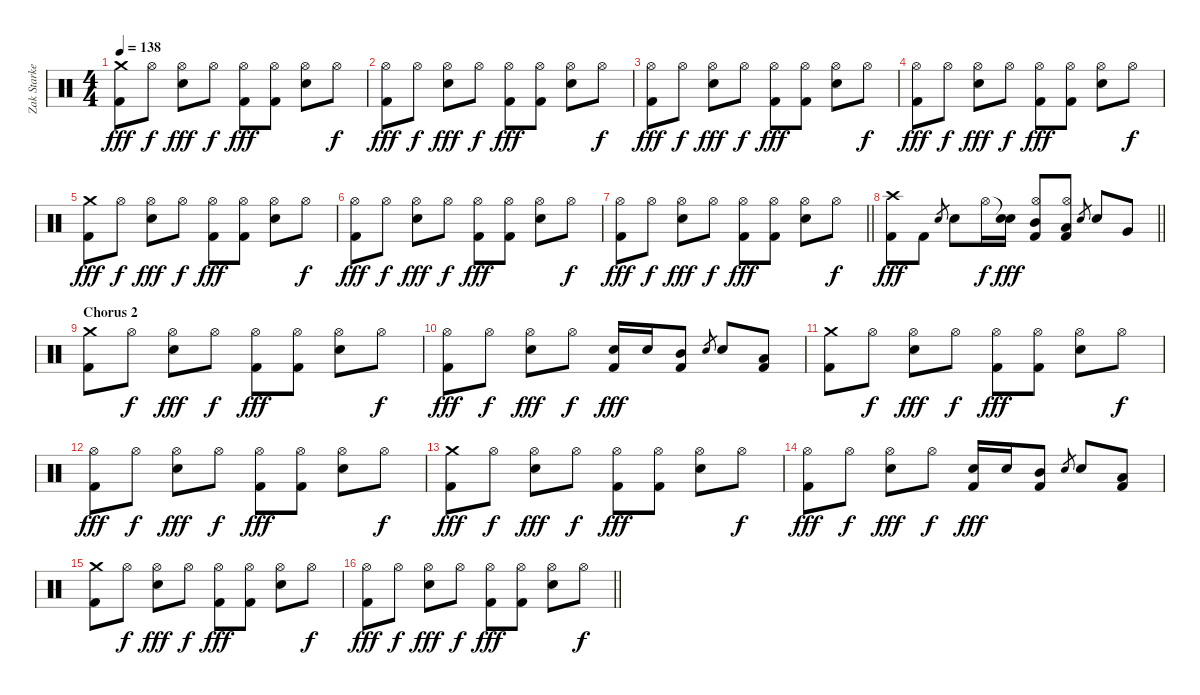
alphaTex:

\track ("Zak Starkey" "Zak Starke") {instrument percussion}
\staff {score}
\articulation defaults
\ts (4 4)
\tempo 138
\clef neutral
\ks c
("Crash medium (hit)" "Kick (hit) 2").8{dy fff} "Hi-Hat (open)".8{dy f} ("Hi-Hat (open)" "Snare (hit) 2").8{dy fff} "Hi-Hat (open)".8{dy f} ("Hi-Hat (open)" "Kick (hit) 2").8{dy fff} ("Hi-Hat (open)" "Kick (hit) 2").8 ("Hi-Hat (open)" "Snare (hit) 2").8 "Hi-Hat (open)".8{dy f} |
("Hi-Hat (open)" "Kick (hit) 2").8{dy fff} "Hi-Hat (open)".8{dy f} ("Hi-Hat (open)" "Snare (hit) 2").8{dy fff} "Hi-Hat (open)".8{dy f} ("Hi-Hat (open)" "Kick (hit) 2").8{dy fff} ("Hi-Hat (open)" "Kick (hit) 2").8 ("Hi-Hat (open)" "Snare (hit) 2").8 "Hi-Hat (open)".8{dy f} |
("Hi-Hat (open)" "Kick (hit) 2").8{dy fff} "Hi-Hat (open)".8{dy f} ("Hi-Hat (open)" "Snare (hit) 2").8{dy fff} "Hi-Hat (open)".8{dy f} ("Hi-Hat (open)" "Kick (hit) 2").8{dy fff} ("Hi-Hat (open)" "Kick (hit) 2").8 ("Hi-Hat (open)" "Snare (hit) 2").8 "Hi-Hat (open)".8{dy f} |
("Hi-Hat (open)" "Kick (hit) 2").8{dy fff} "Hi-Hat (open)".8{dy f} ("Hi-Hat (open)" "Snare (hit) 2").8{dy fff} "Hi-Hat (open)".8{dy f} ("Hi-Hat (open)" "Kick (hit) 2").8{dy fff} ("Hi-Hat (open)" "Kick (hit) 2").8 ("Hi-Hat (open)" "Snare (hit) 2").8 "Hi-Hat (open)".8{dy f} |
("Crash medium (hit)" "Kick (hit) 2").8{dy fff} "Hi-Hat (open)".8{dy f} ("Hi-Hat (open)" "Snare (hit) 2").8{dy fff} "Hi-Hat (open)".8{dy f} ("Hi-Hat (open)" "Kick (hit) 2").8{dy fff} ("Hi-Hat (open)" "Kick (hit) 2").8 ("Hi-Hat (open)" "Snare (hit) 2").8 "Hi-Hat (open)".8{dy f} |
("Hi-Hat (open)" "Kick (hit) 2").8{dy fff} "Hi-Hat (open)".8{dy f} ("Hi-Hat (open)" "Snare (hit) 2").8{dy fff} "Hi-Hat (open)".8{dy f} ("Hi-Hat (open)" "Kick (hit) 2").8{dy fff} ("Hi-Hat (open)" "Kick (hit) 2").8 ("Hi-Hat (open)" "Snare (hit) 2").8 "Hi-Hat (open)".8{dy f} |
\barLineRight lightlight
("Hi-Hat (open)" "Kick (hit) 2").8{dy fff} "Hi-Hat (open)".8{dy f} ("Hi-Hat (open)" "Snare (hit) 2").8{dy fff} "Hi-Hat (open)".8{dy f} ("Hi-Hat (open)" "Kick (hit) 2").8{dy fff} ("Hi-Hat (open)" "Kick (hit) 2").8 ("Hi-Hat (open)" "Snare (hit) 2").8 "Hi-Hat (open)".8{dy f} |
\barLineRight lightlight
("Crash high (hit)" "Kick (hit) 2").8{dy fff} "Kick (hit) 2".8 "Snare (hit) 2".8{gr} "Snare (hit) 2".8 "Hi-Hat (open)".16{dy f} ("Snare (hit)"{t} "Snare (hit) 2").16{dy fff} ("Hi-Hat (open)" "Mid Tom (hit)" "Kick (hit) 2").8 ("Hi-Hat (open)" "Low Tom (hit)" "Kick (hit) 2").8 "Snare (hit) 2".8{gr} "Snare (hit) 2".8 "Very Low Tom (hit)".8 |
\section ("" "Chorus 2")
("Crash medium (hit)" "Kick (hit) 2").8 "Hi-Hat (open)".8{dy f} ("Hi-Hat (open)" "Snare (hit) 2").8{dy fff} "Hi-Hat (open)".8{dy f} ("Hi-Hat (open)" "Kick (hit) 2").8{dy fff} ("Hi-Hat (open)" "Kick (hit) 2").8 ("Hi-Hat (open)" "Snare (hit) 2").8 "Hi-Hat (open)".8{dy f} |
("Hi-Hat (open)" "Kick (hit) 2").8{dy fff} "Hi-Hat (open)".8{dy f} ("Hi-Hat (open)" "Snare (hit) 2").8{dy fff} "Hi-Hat (open)".8{dy f} ("Snare (hit) 2" "Kick (hit) 2").16{dy fff} "Snare (hit) 2".16 ("Mid Tom (hit)" "Kick (hit) 2").8 "Snare (hit) 2".8{gr} "Snare (hit) 2".8 ("Low Tom (hit)" "Kick (hit) 2").8 |
("Crash medium (hit)" "Kick (hit) 2").8 "Hi-Hat (open)".8{dy f} ("Hi-Hat (open)" "Snare (hit) 2").8{dy fff} "Hi-Hat (open)".8{dy f} ("Hi-Hat (open)" "Kick (hit) 2").8{dy fff} ("Hi-Hat (open)" "Kick (hit) 2").8 ("Hi-Hat (open)" "Snare (hit) 2").8 "Hi-Hat (open)".8{dy f} |
("Hi-Hat (open)" "Kick (hit) 2").8{dy fff} "Hi-Hat (open)".8{dy f} ("Hi-Hat (open)" "Snare (hit) 2").8{dy fff} "Hi-Hat (open)".8{dy f} ("Hi-Hat (open)" "Kick (hit) 2").8{dy fff} ("Hi-Hat (open)" "Kick (hit) 2").8 ("Hi-Hat (open)" "Snare (hit) 2").8 "Hi-Hat (open)".8{dy f} |
("Crash medium (hit)" "Kick (hit) 2").8{dy fff} "Hi-Hat (open)".8{dy f} ("Hi-Hat (open)" "Snare (hit) 2").8{dy fff} "Hi-Hat (open)".8{dy f} ("Hi-Hat (open)" "Kick (hit) 2").8{dy fff} ("Hi-Hat (open)" "Kick (hit) 2").8 ("Hi-Hat (open)" "Snare (hit) 2").8 "Hi-Hat (open)".8{dy f} |
("Hi-Hat (open)" "Kick (hit) 2").8{dy fff} "Hi-Hat (open)".8{dy f} ("Hi-Hat (open)" "Snare (hit) 2").8{dy fff} "Hi-Hat (open)".8{dy f} ("Snare (hit) 2" "Kick (hit) 2").16{dy fff} "Snare (hit) 2".16 ("Mid Tom (hit)" "Kick (hit) 2").8 "Snare (hit) 2".8{gr} "Snare (hit) 2".8 ("Low Tom (hit)" "Kick (hit) 2").8 |
("Crash medium (hit)" "Kick (hit) 2").8 "Hi-Hat (open)".8{dy f} ("Hi-Hat (open)" "Snare (hit) 2").8{dy fff} "Hi-Hat (open)".8{dy f} ("Hi-Hat (open)" "Kick (hit) 2").8{dy fff} ("Hi-Hat (open)" "Kick (hit) 2").8 ("Hi-Hat (open)" "Snare (hit) 2").8 "Hi-Hat (open)".8{dy f} |
\barLineRight lightlight
("Hi-Hat (open)" "Kick (hit) 2").8{dy fff} "Hi-Hat (open)".8{dy f} ("Hi-Hat (open)" "Snare (hit) 2").8{dy fff} "Hi-Hat (open)".8{dy f} ("Hi-Hat (open)" "Kick (hit) 2").8{dy fff} ("Hi-Hat (open)" "Kick (hit) 2").8 ("Hi-Hat (open)" "Snare (hit) 2").8 "Hi-Hat (open)".8{dy f}
